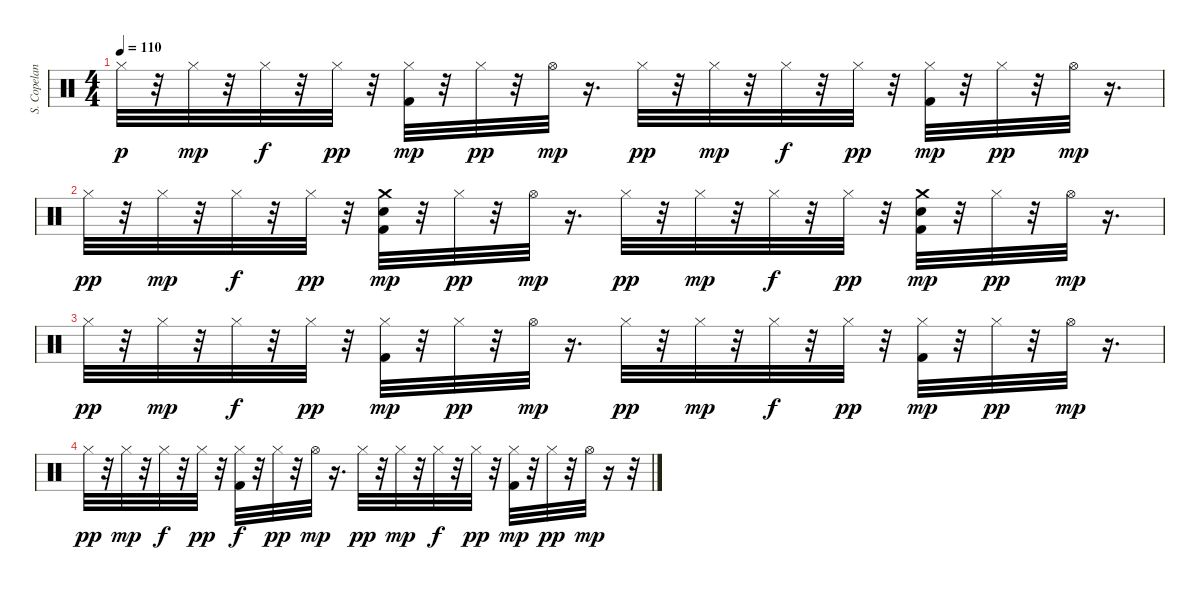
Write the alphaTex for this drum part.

\track ("S. Copeland" "S. Copelan") {instrument percussion}
\staff {score}
\articulation defaults
\ts (4 4)
\tempo 110
\clef neutral
\ks c "Hi-Hat (closed)".32{dy p}
r.32 "Hi-Hat (closed)".32{dy mp} r.32 "Hi-Hat (closed)".32{dy f} r.32 "Hi-Hat (closed)".32{dy pp} r.32 ("Kick (hit) 2" "Hi-Hat (closed)").32{dy mp} r.32 "Hi-Hat (closed)".32{dy pp} r.32 "Hi-Hat (open)".32{dy mp} r.16{d} "Hi-Hat (closed)".32{dy pp} r.32 "Hi-Hat (closed)".32{dy mp} r.32 "Hi-Hat (closed)".32{dy f} r.32 "Hi-Hat (closed)".32{dy pp} r.32 ("Kick (hit) 2" "Hi-Hat (closed)").32{dy mp} r.32 "Hi-Hat (closed)".32{dy pp} r.32 "Hi-Hat (open)".32{dy mp} r.16{d} |
"Hi-Hat (closed)".32{dy pp} r.32 "Hi-Hat (closed)".32{dy mp} r.32 "Hi-Hat (closed)".32{dy f} r.32 "Hi-Hat (closed)".32{dy pp} r.32 ("Kick (hit) 2" "Electric Snare (hit)" "Crash medium (hit)").32{dy mp} r.32 "Hi-Hat (closed)".32{dy pp} r.32 "Hi-Hat (open)".32{dy mp} r.16{d} "Hi-Hat (closed)".32{dy pp} r.32 "Hi-Hat (closed)".32{dy mp} r.32 "Hi-Hat (closed)".32{dy f} r.32 "Hi-Hat (closed)".32{dy pp} r.32 ("Kick (hit) 2" "Electric Snare (hit)" "Crash medium (hit)").32{dy mp} r.32 "Hi-Hat (closed)".32{dy pp} r.32 "Hi-Hat (open)".32{dy mp} r.16{d} |
"Hi-Hat (closed)".32{dy pp} r.32 "Hi-Hat (closed)".32{dy mp} r.32 "Hi-Hat (closed)".32{dy f} r.32 "Hi-Hat (closed)".32{dy pp} r.32 ("Kick (hit) 2" "Hi-Hat (closed)").32{dy mp} r.32 "Hi-Hat (closed)".32{dy pp} r.32 "Hi-Hat (open)".32{dy mp} r.16{d} "Hi-Hat (closed)".32{dy pp} r.32 "Hi-Hat (closed)".32{dy mp} r.32 "Hi-Hat (closed)".32{dy f} r.32 "Hi-Hat (closed)".32{dy pp} r.32 ("Kick (hit) 2" "Hi-Hat (closed)").32{dy mp} r.32 "Hi-Hat (closed)".32{dy pp} r.32 "Hi-Hat (open)".32{dy mp} r.16{d} |
"Hi-Hat (closed)".32{dy pp} r.32 "Hi-Hat (closed)".32{dy mp} r.32 "Hi-Hat (closed)".32{dy f} r.32 "Hi-Hat (closed)".32{dy pp} r.32 ("Kick (hit) 2" "Hi-Hat (closed)").32{dy f} r.32 "Hi-Hat (closed)".32{dy pp} r.32 "Hi-Hat (open)".32{dy mp} r.16{d} "Hi-Hat (closed)".32{dy pp} r.32 "Hi-Hat (closed)".32{dy mp} r.32 "Hi-Hat (closed)".32{dy f} r.32 "Hi-Hat (closed)".32{dy pp} r.32 ("Kick (hit) 2" "Hi-Hat (closed)").32{dy mp} r.32 "Hi-Hat (closed)".32{dy pp} r.32 "Hi-Hat (open)".32{dy mp} r.16 r.32
